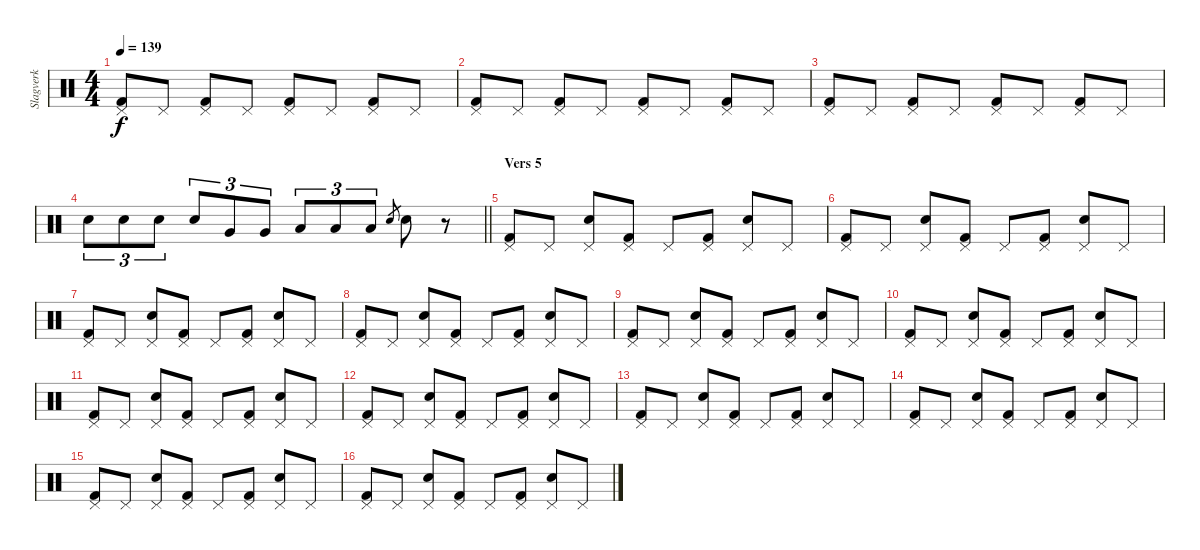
\track ("Slagverk" "Slagverk") {instrument percussion}
\staff {score}
\articulation defaults
\ts (4 4)
\tempo 139
\clef neutral
\ks c
("Pedal Hi-Hat (hit)" "Kick (hit) 2").8{dy f} "Pedal Hi-Hat (hit)".8 ("Pedal Hi-Hat (hit)" "Kick (hit) 2").8 "Pedal Hi-Hat (hit)".8 ("Pedal Hi-Hat (hit)" "Kick (hit) 2").8 "Pedal Hi-Hat (hit)".8 ("Pedal Hi-Hat (hit)" "Kick (hit) 2").8 "Pedal Hi-Hat (hit)".8 |
("Pedal Hi-Hat (hit)" "Kick (hit) 2").8 "Pedal Hi-Hat (hit)".8 ("Pedal Hi-Hat (hit)" "Kick (hit) 2").8 "Pedal Hi-Hat (hit)".8 ("Pedal Hi-Hat (hit)" "Kick (hit) 2").8 "Pedal Hi-Hat (hit)".8 ("Pedal Hi-Hat (hit)" "Kick (hit) 2").8 "Pedal Hi-Hat (hit)".8 |
("Pedal Hi-Hat (hit)" "Kick (hit) 2").8 "Pedal Hi-Hat (hit)".8 ("Pedal Hi-Hat (hit)" "Kick (hit) 2").8 "Pedal Hi-Hat (hit)".8 ("Pedal Hi-Hat (hit)" "Kick (hit) 2").8 "Pedal Hi-Hat (hit)".8 ("Pedal Hi-Hat (hit)" "Kick (hit) 2").8 "Pedal Hi-Hat (hit)".8 |
\barLineRight lightlight "Snare (hit) 2".8{tu (3 2)} "Snare (hit) 2".8{tu (3 2)} "Snare (hit) 2".8{tu (3 2)} "Snare (hit) 2".8{tu (3 2)} "Very Low Tom (hit)".8{tu (3 2)} "Very Low Tom (hit)".8{tu (3 2)} "Low Floor Tom (hit)".8{tu (3 2)} "Low Floor Tom (hit)".8{tu (3 2)} "Low Floor Tom (hit)".8{tu (3 2)} "Snare (hit) 2".8{gr} "Snare (hit) 2".8
r.8 |
\section ("" "Vers 5")
("Pedal Hi-Hat (hit)" "Kick (hit) 2").8 "Pedal Hi-Hat (hit)".8 ("Pedal Hi-Hat (hit)" "Snare (hit) 2").8 ("Pedal Hi-Hat (hit)" "Kick (hit) 2").8 "Pedal Hi-Hat (hit)".8 ("Pedal Hi-Hat (hit)" "Kick (hit) 2").8 ("Pedal Hi-Hat (hit)" "Snare (hit) 2").8 "Pedal Hi-Hat (hit)".8 |
("Pedal Hi-Hat (hit)" "Kick (hit) 2").8 "Pedal Hi-Hat (hit)".8 ("Pedal Hi-Hat (hit)" "Snare (hit) 2").8 ("Pedal Hi-Hat (hit)" "Kick (hit) 2").8 "Pedal Hi-Hat (hit)".8 ("Pedal Hi-Hat (hit)" "Kick (hit) 2").8 ("Pedal Hi-Hat (hit)" "Snare (hit) 2").8 "Pedal Hi-Hat (hit)".8 |
("Pedal Hi-Hat (hit)" "Kick (hit) 2").8 "Pedal Hi-Hat (hit)".8 ("Pedal Hi-Hat (hit)" "Snare (hit) 2").8 ("Pedal Hi-Hat (hit)" "Kick (hit) 2").8 "Pedal Hi-Hat (hit)".8 ("Pedal Hi-Hat (hit)" "Kick (hit) 2").8 ("Pedal Hi-Hat (hit)" "Snare (hit) 2").8 "Pedal Hi-Hat (hit)".8 |
("Pedal Hi-Hat (hit)" "Kick (hit) 2").8 "Pedal Hi-Hat (hit)".8 ("Pedal Hi-Hat (hit)" "Snare (hit) 2").8 ("Pedal Hi-Hat (hit)" "Kick (hit) 2").8 "Pedal Hi-Hat (hit)".8 ("Pedal Hi-Hat (hit)" "Kick (hit) 2").8 ("Pedal Hi-Hat (hit)" "Snare (hit) 2").8 "Pedal Hi-Hat (hit)".8 |
("Pedal Hi-Hat (hit)" "Kick (hit) 2").8 "Pedal Hi-Hat (hit)".8 ("Pedal Hi-Hat (hit)" "Snare (hit) 2").8 ("Pedal Hi-Hat (hit)" "Kick (hit) 2").8 "Pedal Hi-Hat (hit)".8 ("Pedal Hi-Hat (hit)" "Kick (hit) 2").8 ("Pedal Hi-Hat (hit)" "Snare (hit) 2").8 "Pedal Hi-Hat (hit)".8 |
("Pedal Hi-Hat (hit)" "Kick (hit) 2").8 "Pedal Hi-Hat (hit)".8 ("Pedal Hi-Hat (hit)" "Snare (hit) 2").8 ("Pedal Hi-Hat (hit)" "Kick (hit) 2").8 "Pedal Hi-Hat (hit)".8 ("Pedal Hi-Hat (hit)" "Kick (hit) 2").8 ("Pedal Hi-Hat (hit)" "Snare (hit) 2").8 "Pedal Hi-Hat (hit)".8 |
("Pedal Hi-Hat (hit)" "Kick (hit) 2").8 "Pedal Hi-Hat (hit)".8 ("Pedal Hi-Hat (hit)" "Snare (hit) 2").8 ("Pedal Hi-Hat (hit)" "Kick (hit) 2").8 "Pedal Hi-Hat (hit)".8 ("Pedal Hi-Hat (hit)" "Kick (hit) 2").8 ("Pedal Hi-Hat (hit)" "Snare (hit) 2").8 "Pedal Hi-Hat (hit)".8 |
("Pedal Hi-Hat (hit)" "Kick (hit) 2").8 "Pedal Hi-Hat (hit)".8 ("Pedal Hi-Hat (hit)" "Snare (hit) 2").8 ("Pedal Hi-Hat (hit)" "Kick (hit) 2").8 "Pedal Hi-Hat (hit)".8 ("Pedal Hi-Hat (hit)" "Kick (hit) 2").8 ("Pedal Hi-Hat (hit)" "Snare (hit) 2").8 "Pedal Hi-Hat (hit)".8 |
("Pedal Hi-Hat (hit)" "Kick (hit) 2").8 "Pedal Hi-Hat (hit)".8 ("Pedal Hi-Hat (hit)" "Snare (hit) 2").8 ("Pedal Hi-Hat (hit)" "Kick (hit) 2").8 "Pedal Hi-Hat (hit)".8 ("Pedal Hi-Hat (hit)" "Kick (hit) 2").8 ("Pedal Hi-Hat (hit)" "Snare (hit) 2").8 "Pedal Hi-Hat (hit)".8 |
("Pedal Hi-Hat (hit)" "Kick (hit) 2").8 "Pedal Hi-Hat (hit)".8 ("Pedal Hi-Hat (hit)" "Snare (hit) 2").8 ("Pedal Hi-Hat (hit)" "Kick (hit) 2").8 "Pedal Hi-Hat (hit)".8 ("Pedal Hi-Hat (hit)" "Kick (hit) 2").8 ("Pedal Hi-Hat (hit)" "Snare (hit) 2").8 "Pedal Hi-Hat (hit)".8 |
("Pedal Hi-Hat (hit)" "Kick (hit) 2").8 "Pedal Hi-Hat (hit)".8 ("Pedal Hi-Hat (hit)" "Snare (hit) 2").8 ("Pedal Hi-Hat (hit)" "Kick (hit) 2").8 "Pedal Hi-Hat (hit)".8 ("Pedal Hi-Hat (hit)" "Kick (hit) 2").8 ("Pedal Hi-Hat (hit)" "Snare (hit) 2").8 "Pedal Hi-Hat (hit)".8 |
("Pedal Hi-Hat (hit)" "Kick (hit) 2").8 "Pedal Hi-Hat (hit)".8 ("Pedal Hi-Hat (hit)" "Snare (hit) 2").8 ("Pedal Hi-Hat (hit)" "Kick (hit) 2").8 "Pedal Hi-Hat (hit)".8 ("Pedal Hi-Hat (hit)" "Kick (hit) 2").8 ("Pedal Hi-Hat (hit)" "Snare (hit) 2").8 "Pedal Hi-Hat (hit)".8
